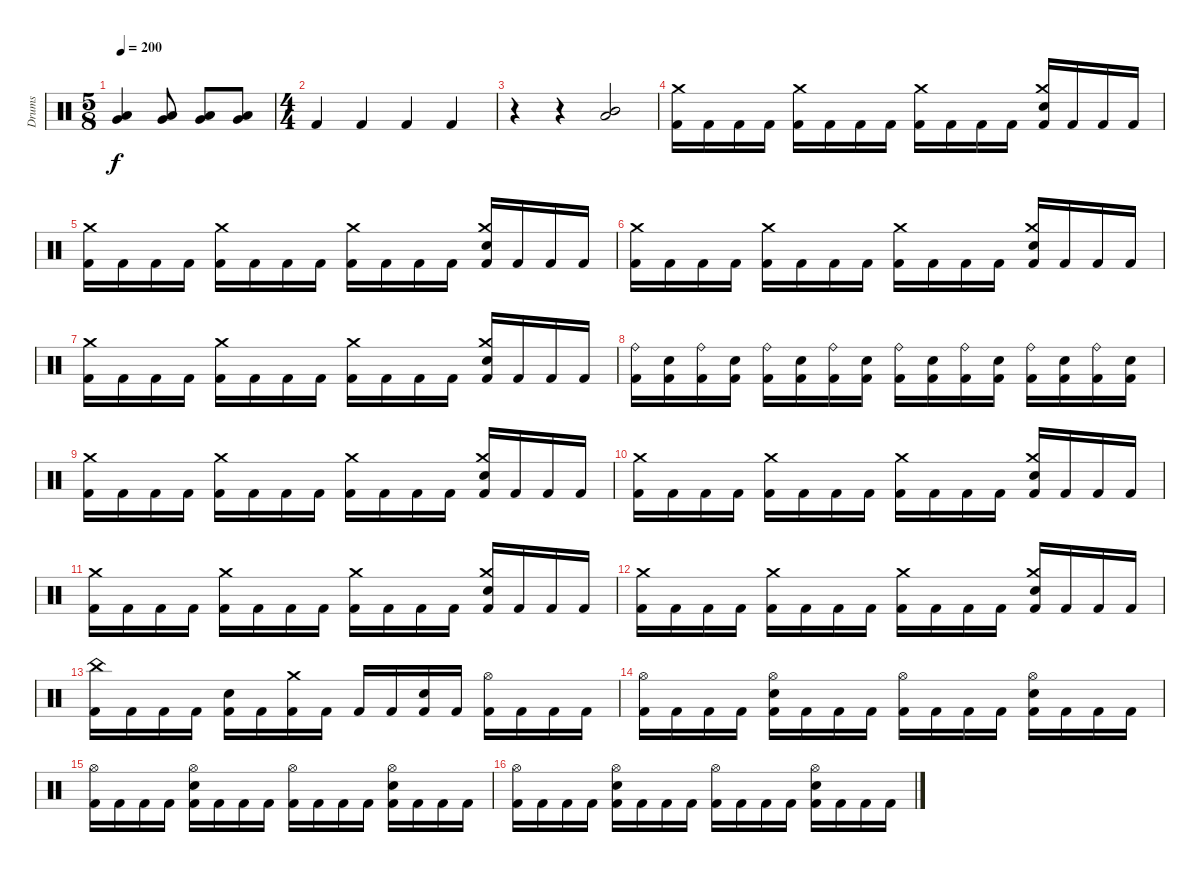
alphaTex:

\track ("Drums" "Drums") {instrument percussion}
\staff {score}
\articulation defaults
\ts (5 8)
\tempo 200
\clef neutral
\ks c
("Low Tom (hit)" "Very Low Tom (hit)").4{dy f} ("Low Tom (hit)" "Very Low Tom (hit)").8 ("Low Tom (hit)" "Very Low Tom (hit)").8 ("Low Tom (hit)" "Very Low Tom (hit)").8 |
\ts (4 4)
"Kick (hit) 2".4 "Kick (hit) 2".4 "Kick (hit) 2".4 "Kick (hit) 2".4 |
r.4 r.4 ("Low Tom (hit)" "Mid Tom (hit)").2 |
("Crash medium (hit)" "Kick (hit) 2").16 "Kick (hit) 2".16 "Kick (hit) 2".16 "Kick (hit) 2".16 ("Crash medium (hit)" "Kick (hit) 2").16 "Kick (hit) 2".16 "Kick (hit) 2".16 "Kick (hit) 2".16 ("Crash medium (hit)" "Kick (hit) 2").16 "Kick (hit) 2".16 "Kick (hit) 2".16 "Kick (hit) 2".16 ("Crash medium (hit)" "Electric Snare (hit)" "Kick (hit) 2").16 "Kick (hit) 2".16 "Kick (hit) 2".16 "Kick (hit) 2".16 |
("Crash medium (hit)" "Kick (hit) 2").16 "Kick (hit) 2".16 "Kick (hit) 2".16 "Kick (hit) 2".16 ("Crash medium (hit)" "Kick (hit) 2").16 "Kick (hit) 2".16 "Kick (hit) 2".16 "Kick (hit) 2".16 ("Crash medium (hit)" "Kick (hit) 2").16 "Kick (hit) 2".16 "Kick (hit) 2".16 "Kick (hit) 2".16 ("Crash medium (hit)" "Electric Snare (hit)" "Kick (hit) 2").16 "Kick (hit) 2".16 "Kick (hit) 2".16 "Kick (hit) 2".16 |
("Crash medium (hit)" "Kick (hit) 2").16 "Kick (hit) 2".16 "Kick (hit) 2".16 "Kick (hit) 2".16 ("Crash medium (hit)" "Kick (hit) 2").16 "Kick (hit) 2".16 "Kick (hit) 2".16 "Kick (hit) 2".16 ("Crash medium (hit)" "Kick (hit) 2").16 "Kick (hit) 2".16 "Kick (hit) 2".16 "Kick (hit) 2".16 ("Crash medium (hit)" "Electric Snare (hit)" "Kick (hit) 2").16 "Kick (hit) 2".16 "Kick (hit) 2".16 "Kick (hit) 2".16 |
("Crash medium (hit)" "Kick (hit) 2").16 "Kick (hit) 2".16 "Kick (hit) 2".16 "Kick (hit) 2".16 ("Crash medium (hit)" "Kick (hit) 2").16 "Kick (hit) 2".16 "Kick (hit) 2".16 "Kick (hit) 2".16 ("Crash medium (hit)" "Kick (hit) 2").16 "Kick (hit) 2".16 "Kick (hit) 2".16 "Kick (hit) 2".16 ("Crash medium (hit)" "Electric Snare (hit)" "Kick (hit) 2").16 "Kick (hit) 2".16 "Kick (hit) 2".16 "Kick (hit) 2".16 |
("Ride (bell)" "Kick (hit) 2").16 ("Electric Snare (hit)" "Kick (hit) 2").16 ("Ride (bell)" "Kick (hit) 2").16 ("Electric Snare (hit)" "Kick (hit) 2").16 ("Ride (bell)" "Kick (hit) 2").16 ("Electric Snare (hit)" "Kick (hit) 2").16 ("Ride (bell)" "Kick (hit) 2").16 ("Electric Snare (hit)" "Kick (hit) 2").16 ("Ride (bell)" "Kick (hit) 2").16 ("Electric Snare (hit)" "Kick (hit) 2").16 ("Ride (bell)" "Kick (hit) 2").16 ("Electric Snare (hit)" "Kick (hit) 2").16 ("Ride (bell)" "Kick (hit) 2").16 ("Electric Snare (hit)" "Kick (hit) 2").16 ("Ride (bell)" "Kick (hit) 2").16 ("Electric Snare (hit)" "Kick (hit) 2").16 |
("Crash medium (hit)" "Kick (hit) 2").16 "Kick (hit) 2".16 "Kick (hit) 2".16 "Kick (hit) 2".16 ("Crash medium (hit)" "Kick (hit) 2").16 "Kick (hit) 2".16 "Kick (hit) 2".16 "Kick (hit) 2".16 ("Crash medium (hit)" "Kick (hit) 2").16 "Kick (hit) 2".16 "Kick (hit) 2".16 "Kick (hit) 2".16 ("Crash medium (hit)" "Electric Snare (hit)" "Kick (hit) 2").16 "Kick (hit) 2".16 "Kick (hit) 2".16 "Kick (hit) 2".16 |
("Crash medium (hit)" "Kick (hit) 2").16 "Kick (hit) 2".16 "Kick (hit) 2".16 "Kick (hit) 2".16 ("Crash medium (hit)" "Kick (hit) 2").16 "Kick (hit) 2".16 "Kick (hit) 2".16 "Kick (hit) 2".16 ("Crash medium (hit)" "Kick (hit) 2").16 "Kick (hit) 2".16 "Kick (hit) 2".16 "Kick (hit) 2".16 ("Crash medium (hit)" "Electric Snare (hit)" "Kick (hit) 2").16 "Kick (hit) 2".16 "Kick (hit) 2".16 "Kick (hit) 2".16 |
("Crash medium (hit)" "Kick (hit) 2").16 "Kick (hit) 2".16 "Kick (hit) 2".16 "Kick (hit) 2".16 ("Crash medium (hit)" "Kick (hit) 2").16 "Kick (hit) 2".16 "Kick (hit) 2".16 "Kick (hit) 2".16 ("Crash medium (hit)" "Kick (hit) 2").16 "Kick (hit) 2".16 "Kick (hit) 2".16 "Kick (hit) 2".16 ("Crash medium (hit)" "Electric Snare (hit)" "Kick (hit) 2").16 "Kick (hit) 2".16 "Kick (hit) 2".16 "Kick (hit) 2".16 |
("Crash medium (hit)" "Kick (hit) 2").16 "Kick (hit) 2".16 "Kick (hit) 2".16 "Kick (hit) 2".16 ("Crash medium (hit)" "Kick (hit) 2").16 "Kick (hit) 2".16 "Kick (hit) 2".16 "Kick (hit) 2".16 ("Crash medium (hit)" "Kick (hit) 2").16 "Kick (hit) 2".16 "Kick (hit) 2".16 "Kick (hit) 2".16 ("Crash medium (hit)" "Electric Snare (hit)" "Kick (hit) 2").16 "Kick (hit) 2".16 "Kick (hit) 2".16 "Kick (hit) 2".16 |
("China (hit)" "Kick (hit) 2").16 "Kick (hit) 2".16 "Kick (hit) 2".16 "Kick (hit) 2".16 ("Electric Snare (hit)" "Kick (hit) 2").16 "Kick (hit) 2".16 ("Crash medium (hit)" "Kick (hit) 2").16 "Kick (hit) 2".16 "Kick (hit) 2".16 "Kick (hit) 2".16 ("Electric Snare (hit)" "Kick (hit) 2").16 "Kick (hit) 2".16 ("Hi-Hat (open)" "Kick (hit) 2").16 "Kick (hit) 2".16 "Kick (hit) 2".16 "Kick (hit) 2".16 |
("Hi-Hat (open)" "Kick (hit) 2").16 "Kick (hit) 2".16 "Kick (hit) 2".16 "Kick (hit) 2".16 ("Hi-Hat (open)" "Electric Snare (hit)" "Kick (hit) 2").16 "Kick (hit) 2".16 "Kick (hit) 2".16 "Kick (hit) 2".16 ("Hi-Hat (open)" "Kick (hit) 2").16 "Kick (hit) 2".16 "Kick (hit) 2".16 "Kick (hit) 2".16 ("Hi-Hat (open)" "Electric Snare (hit)" "Kick (hit) 2").16 "Kick (hit) 2".16 "Kick (hit) 2".16 "Kick (hit) 2".16 |
("Hi-Hat (open)" "Kick (hit) 2").16 "Kick (hit) 2".16 "Kick (hit) 2".16 "Kick (hit) 2".16 ("Hi-Hat (open)" "Electric Snare (hit)" "Kick (hit) 2").16 "Kick (hit) 2".16 "Kick (hit) 2".16 "Kick (hit) 2".16 ("Hi-Hat (open)" "Kick (hit) 2").16 "Kick (hit) 2".16 "Kick (hit) 2".16 "Kick (hit) 2".16 ("Hi-Hat (open)" "Electric Snare (hit)" "Kick (hit) 2").16 "Kick (hit) 2".16 "Kick (hit) 2".16 "Kick (hit) 2".16 |
("Hi-Hat (open)" "Kick (hit) 2").16 "Kick (hit) 2".16 "Kick (hit) 2".16 "Kick (hit) 2".16 ("Hi-Hat (open)" "Electric Snare (hit)" "Kick (hit) 2").16 "Kick (hit) 2".16 "Kick (hit) 2".16 "Kick (hit) 2".16 ("Hi-Hat (open)" "Kick (hit) 2").16 "Kick (hit) 2".16 "Kick (hit) 2".16 "Kick (hit) 2".16 ("Hi-Hat (open)" "Electric Snare (hit)" "Kick (hit) 2").16 "Kick (hit) 2".16 "Kick (hit) 2".16 "Kick (hit) 2".16
